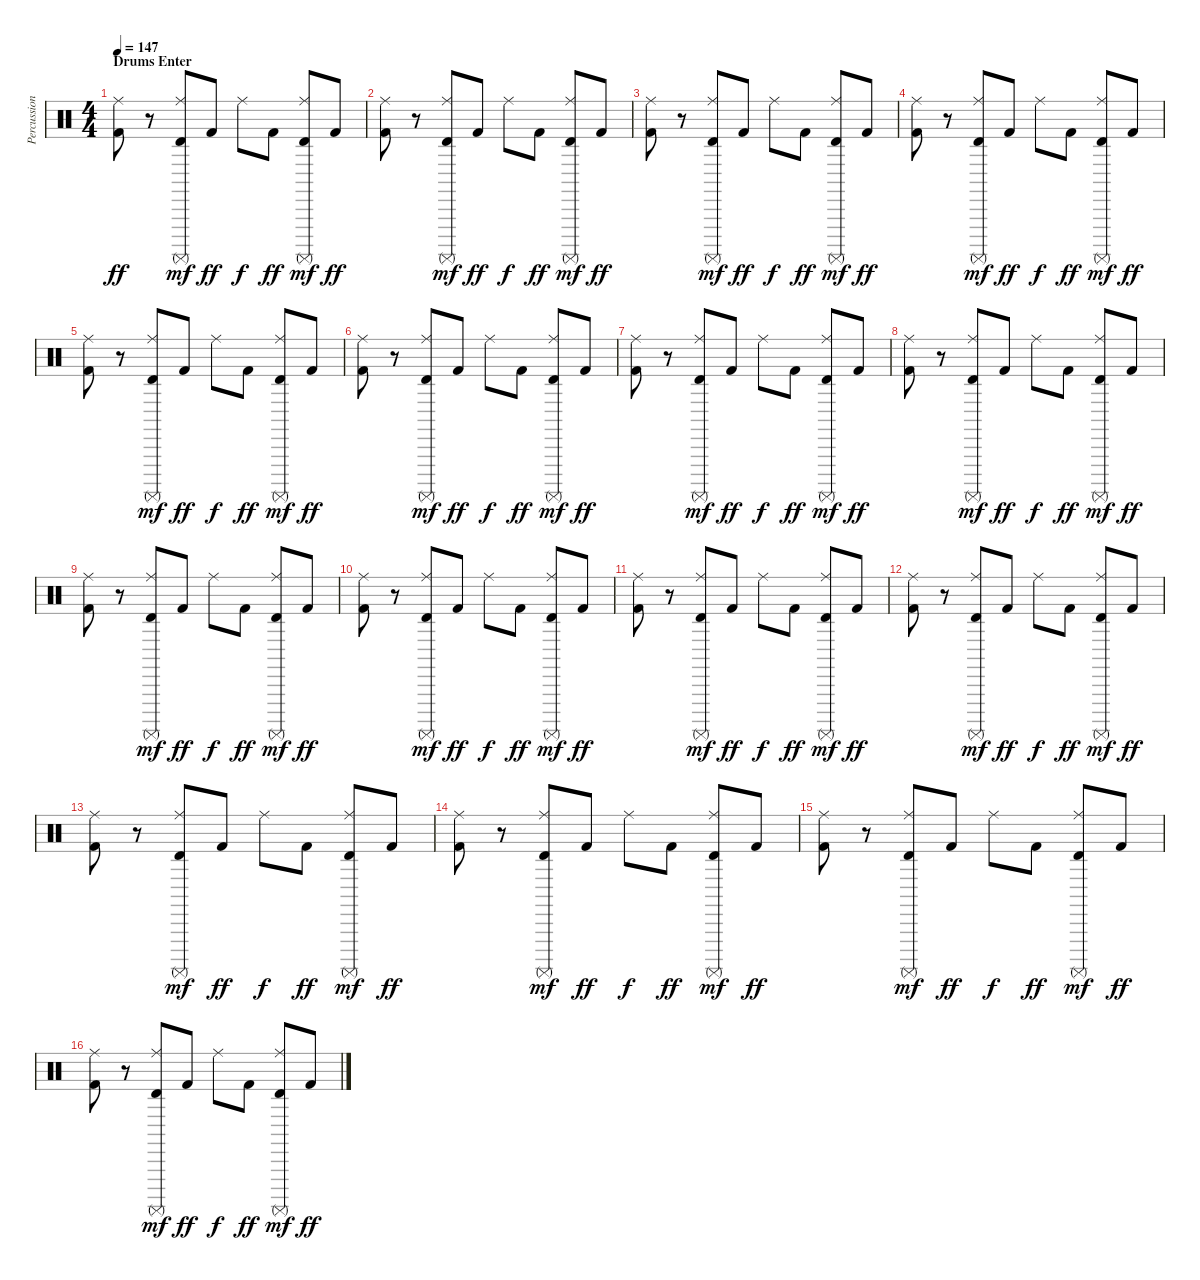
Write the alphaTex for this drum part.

\track ("Percussion" "Percussion") {instrument percussion}
\staff {score}
\articulation defaults
\ts (4 4)
\section ("" "Drums Enter")
\tempo 147
\clef neutral
\ks c
("Ride (middle)" "Kick (hit) 2").8{dy ff volume 8} r.8 ("Ride (middle)" "Surdo (mute)" "Timbale high (hit)").8{dy mf} "Kick (hit) 2".8{dy ff} "Ride (middle)".8{dy f} "Kick (hit) 2".8{dy ff} ("Ride (middle)" "Surdo (mute)" "Timbale high (hit)").8{dy mf} "Kick (hit) 2".8{dy ff} |
("Ride (middle)" "Kick (hit) 2").8 r.8 ("Ride (middle)" "Surdo (mute)" "Timbale high (hit)").8{dy mf} "Kick (hit) 2".8{dy ff} "Ride (middle)".8{dy f} "Kick (hit) 2".8{dy ff} ("Ride (middle)" "Surdo (mute)" "Timbale high (hit)").8{dy mf} "Kick (hit) 2".8{dy ff} |
("Ride (middle)" "Kick (hit) 2").8 r.8 ("Ride (middle)" "Surdo (mute)" "Timbale high (hit)").8{dy mf} "Kick (hit) 2".8{dy ff} "Ride (middle)".8{dy f} "Kick (hit) 2".8{dy ff} ("Ride (middle)" "Surdo (mute)" "Timbale high (hit)").8{dy mf} "Kick (hit) 2".8{dy ff} |
("Ride (middle)" "Kick (hit) 2").8 r.8 ("Ride (middle)" "Surdo (mute)" "Timbale high (hit)").8{dy mf} "Kick (hit) 2".8{dy ff} "Ride (middle)".8{dy f} "Kick (hit) 2".8{dy ff} ("Ride (middle)" "Surdo (mute)" "Timbale high (hit)").8{dy mf} "Kick (hit) 2".8{dy ff} |
("Ride (middle)" "Kick (hit) 2").8{volume 13} r.8 ("Ride (middle)" "Surdo (mute)" "Timbale high (hit)").8{dy mf} "Kick (hit) 2".8{dy ff} "Ride (middle)".8{dy f} "Kick (hit) 2".8{dy ff} ("Ride (middle)" "Surdo (mute)" "Timbale high (hit)").8{dy mf} "Kick (hit) 2".8{dy ff} |
("Ride (middle)" "Kick (hit) 2").8 r.8 ("Ride (middle)" "Surdo (mute)" "Timbale high (hit)").8{dy mf} "Kick (hit) 2".8{dy ff} "Ride (middle)".8{dy f} "Kick (hit) 2".8{dy ff} ("Ride (middle)" "Surdo (mute)" "Timbale high (hit)").8{dy mf} "Kick (hit) 2".8{dy ff} |
("Ride (middle)" "Kick (hit) 2").8 r.8 ("Ride (middle)" "Surdo (mute)" "Timbale high (hit)").8{dy mf} "Kick (hit) 2".8{dy ff} "Ride (middle)".8{dy f} "Kick (hit) 2".8{dy ff} ("Ride (middle)" "Surdo (mute)" "Timbale high (hit)").8{dy mf} "Kick (hit) 2".8{dy ff} |
("Ride (middle)" "Kick (hit) 2").8 r.8 ("Ride (middle)" "Surdo (mute)" "Timbale high (hit)").8{dy mf} "Kick (hit) 2".8{dy ff} "Ride (middle)".8{dy f} "Kick (hit) 2".8{dy ff} ("Ride (middle)" "Surdo (mute)" "Timbale high (hit)").8{dy mf} "Kick (hit) 2".8{dy ff} |
("Ride (middle)" "Kick (hit) 2").8 r.8 ("Ride (middle)" "Surdo (mute)" "Timbale high (hit)").8{dy mf} "Kick (hit) 2".8{dy ff} "Ride (middle)".8{dy f} "Kick (hit) 2".8{dy ff} ("Ride (middle)" "Surdo (mute)" "Timbale high (hit)").8{dy mf} "Kick (hit) 2".8{dy ff} |
("Ride (middle)" "Kick (hit) 2").8 r.8 ("Ride (middle)" "Surdo (mute)" "Timbale high (hit)").8{dy mf} "Kick (hit) 2".8{dy ff} "Ride (middle)".8{dy f} "Kick (hit) 2".8{dy ff} ("Ride (middle)" "Surdo (mute)" "Timbale high (hit)").8{dy mf} "Kick (hit) 2".8{dy ff} |
("Ride (middle)" "Kick (hit) 2").8 r.8 ("Ride (middle)" "Surdo (mute)" "Timbale high (hit)").8{dy mf} "Kick (hit) 2".8{dy ff} "Ride (middle)".8{dy f} "Kick (hit) 2".8{dy ff} ("Ride (middle)" "Surdo (mute)" "Timbale high (hit)").8{dy mf} "Kick (hit) 2".8{dy ff} |
("Ride (middle)" "Kick (hit) 2").8 r.8 ("Ride (middle)" "Surdo (mute)" "Timbale high (hit)").8{dy mf} "Kick (hit) 2".8{dy ff} "Ride (middle)".8{dy f} "Kick (hit) 2".8{dy ff} ("Ride (middle)" "Surdo (mute)" "Timbale high (hit)").8{dy mf} "Kick (hit) 2".8{dy ff} |
("Ride (middle)" "Kick (hit) 2").8 r.8 ("Ride (middle)" "Surdo (mute)" "Timbale high (hit)").8{dy mf} "Kick (hit) 2".8{dy ff} "Ride (middle)".8{dy f} "Kick (hit) 2".8{dy ff} ("Ride (middle)" "Surdo (mute)" "Timbale high (hit)").8{dy mf} "Kick (hit) 2".8{dy ff} |
("Ride (middle)" "Kick (hit) 2").8 r.8 ("Ride (middle)" "Surdo (mute)" "Timbale high (hit)").8{dy mf} "Kick (hit) 2".8{dy ff} "Ride (middle)".8{dy f} "Kick (hit) 2".8{dy ff} ("Ride (middle)" "Surdo (mute)" "Timbale high (hit)").8{dy mf} "Kick (hit) 2".8{dy ff} |
("Ride (middle)" "Kick (hit) 2").8 r.8 ("Ride (middle)" "Surdo (mute)" "Timbale high (hit)").8{dy mf} "Kick (hit) 2".8{dy ff} "Ride (middle)".8{dy f} "Kick (hit) 2".8{dy ff} ("Ride (middle)" "Surdo (mute)" "Timbale high (hit)").8{dy mf} "Kick (hit) 2".8{dy ff} |
("Ride (middle)" "Kick (hit) 2").8 r.8 ("Ride (middle)" "Surdo (mute)" "Timbale high (hit)").8{dy mf} "Kick (hit) 2".8{dy ff} "Ride (middle)".8{dy f} "Kick (hit) 2".8{dy ff} ("Ride (middle)" "Surdo (mute)" "Timbale high (hit)").8{dy mf} "Kick (hit) 2".8{dy ff}
